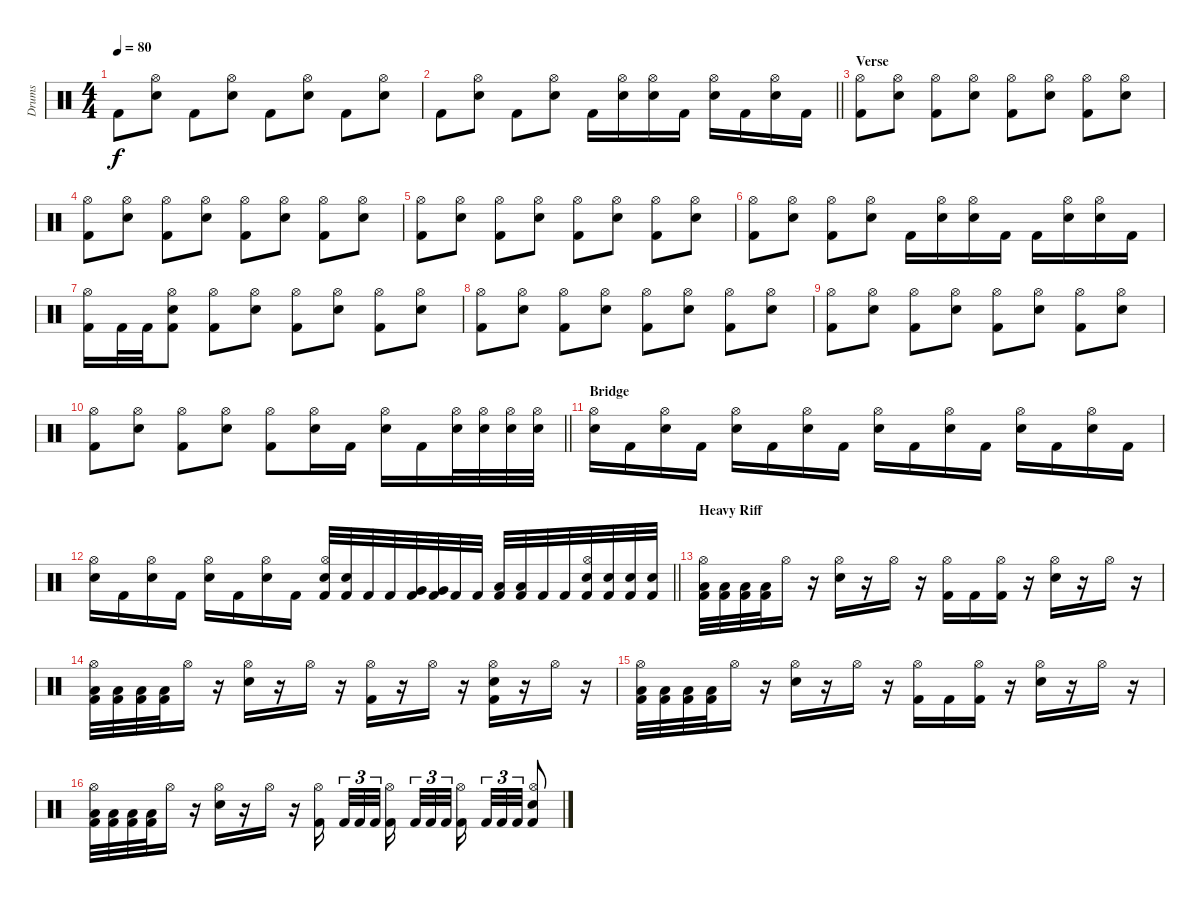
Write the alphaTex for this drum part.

\track ("Drums" "Drums") {instrument percussion}
\staff {score}
\articulation defaults
\ts (4 4)
\tempo 80
\clef neutral
\ks c "Kick (hit) 2".8{dy f}
("Hi-Hat (open)" "Electric Snare (hit)").8 "Kick (hit) 2".8 ("Hi-Hat (open)" "Electric Snare (hit)").8 "Kick (hit) 2".8 ("Hi-Hat (open)" "Electric Snare (hit)").8 "Kick (hit) 2".8 ("Hi-Hat (open)" "Electric Snare (hit)").8 |
\barLineRight lightlight "Kick (hit) 2".8
("Hi-Hat (open)" "Electric Snare (hit)").8 "Kick (hit) 2".8 ("Hi-Hat (open)" "Electric Snare (hit)").8 "Kick (hit) 2".16 ("Hi-Hat (open)" "Electric Snare (hit)").16 ("Hi-Hat (open)" "Electric Snare (hit)").16 "Kick (hit) 2".16 ("Hi-Hat (open)" "Electric Snare (hit)").16 "Kick (hit) 2".16 ("Hi-Hat (open)" "Electric Snare (hit)").16 "Kick (hit) 2".16 |
\section ("" "Verse")
("Hi-Hat (open)" "Kick (hit) 2").8 ("Hi-Hat (open)" "Electric Snare (hit)").8 ("Hi-Hat (open)" "Kick (hit) 2").8 ("Hi-Hat (open)" "Electric Snare (hit)").8 ("Hi-Hat (open)" "Kick (hit) 2").8 ("Hi-Hat (open)" "Electric Snare (hit)").8 ("Hi-Hat (open)" "Kick (hit) 2").8 ("Hi-Hat (open)" "Electric Snare (hit)").8 |
("Hi-Hat (open)" "Kick (hit) 2").8 ("Hi-Hat (open)" "Electric Snare (hit)").8 ("Hi-Hat (open)" "Kick (hit) 2").8 ("Hi-Hat (open)" "Electric Snare (hit)").8 ("Hi-Hat (open)" "Kick (hit) 2").8 ("Hi-Hat (open)" "Electric Snare (hit)").8 ("Hi-Hat (open)" "Kick (hit) 2").8 ("Hi-Hat (open)" "Electric Snare (hit)").8 |
("Hi-Hat (open)" "Kick (hit) 2").8 ("Hi-Hat (open)" "Electric Snare (hit)").8 ("Hi-Hat (open)" "Kick (hit) 2").8 ("Hi-Hat (open)" "Electric Snare (hit)").8 ("Hi-Hat (open)" "Kick (hit) 2").8 ("Hi-Hat (open)" "Electric Snare (hit)").8 ("Hi-Hat (open)" "Kick (hit) 2").8 ("Hi-Hat (open)" "Electric Snare (hit)").8 |
("Hi-Hat (open)" "Kick (hit) 2").8 ("Hi-Hat (open)" "Electric Snare (hit)").8 ("Hi-Hat (open)" "Kick (hit) 2").8 ("Hi-Hat (open)" "Electric Snare (hit)").8 "Kick (hit) 2".16 ("Hi-Hat (open)" "Electric Snare (hit)").16 ("Hi-Hat (open)" "Electric Snare (hit)").16 "Kick (hit) 2".16 "Kick (hit) 2".16 ("Hi-Hat (open)" "Electric Snare (hit)").16 ("Hi-Hat (open)" "Electric Snare (hit)").16 "Kick (hit) 2".16 |
("Hi-Hat (open)" "Kick (hit) 2").16 "Kick (hit) 2".32 "Kick (hit) 2".32 ("Hi-Hat (open)" "Electric Snare (hit)" "Kick (hit) 2").8 ("Hi-Hat (open)" "Kick (hit) 2").8 ("Hi-Hat (open)" "Electric Snare (hit)").8 ("Hi-Hat (open)" "Kick (hit) 2").8 ("Hi-Hat (open)" "Electric Snare (hit)").8 ("Hi-Hat (open)" "Kick (hit) 2").8 ("Hi-Hat (open)" "Electric Snare (hit)").8 |
("Hi-Hat (open)" "Kick (hit) 2").8 ("Hi-Hat (open)" "Electric Snare (hit)").8 ("Hi-Hat (open)" "Kick (hit) 2").8 ("Hi-Hat (open)" "Electric Snare (hit)").8 ("Hi-Hat (open)" "Kick (hit) 2").8 ("Hi-Hat (open)" "Electric Snare (hit)").8 ("Hi-Hat (open)" "Kick (hit) 2").8 ("Hi-Hat (open)" "Electric Snare (hit)").8 |
("Hi-Hat (open)" "Kick (hit) 2").8 ("Hi-Hat (open)" "Electric Snare (hit)").8 ("Hi-Hat (open)" "Kick (hit) 2").8 ("Hi-Hat (open)" "Electric Snare (hit)").8 ("Hi-Hat (open)" "Kick (hit) 2").8 ("Hi-Hat (open)" "Electric Snare (hit)").8 ("Hi-Hat (open)" "Kick (hit) 2").8 ("Hi-Hat (open)" "Electric Snare (hit)").8 |
\barLineRight lightlight
("Hi-Hat (open)" "Kick (hit) 2").8 ("Hi-Hat (open)" "Electric Snare (hit)").8 ("Hi-Hat (open)" "Kick (hit) 2").8 ("Hi-Hat (open)" "Electric Snare (hit)").8 ("Hi-Hat (open)" "Kick (hit) 2").8 ("Hi-Hat (open)" "Electric Snare (hit)").16 "Kick (hit) 2".16 ("Hi-Hat (open)" "Electric Snare (hit)").16 "Kick (hit) 2".16 ("Hi-Hat (open)" "Electric Snare (hit)").32 ("Hi-Hat (open)" "Electric Snare (hit)").32 ("Hi-Hat (open)" "Electric Snare (hit)").32 ("Hi-Hat (open)" "Electric Snare (hit)").32 |
\section ("" "Bridge")
("Hi-Hat (open)" "Electric Snare (hit)").16 "Kick (hit) 2".16 ("Hi-Hat (open)" "Electric Snare (hit)").16 "Kick (hit) 2".16 ("Hi-Hat (open)" "Electric Snare (hit)").16 "Kick (hit) 2".16 ("Hi-Hat (open)" "Electric Snare (hit)").16 "Kick (hit) 2".16 ("Hi-Hat (open)" "Electric Snare (hit)").16 "Kick (hit) 2".16 ("Hi-Hat (open)" "Electric Snare (hit)").16 "Kick (hit) 2".16 ("Hi-Hat (open)" "Electric Snare (hit)").16 "Kick (hit) 2".16 ("Hi-Hat (open)" "Electric Snare (hit)").16 "Kick (hit) 2".16 |
\barLineRight lightlight
("Hi-Hat (open)" "Electric Snare (hit)").16 "Kick (hit) 2".16 ("Hi-Hat (open)" "Electric Snare (hit)").16 "Kick (hit) 2".16 ("Hi-Hat (open)" "Electric Snare (hit)").16 "Kick (hit) 2".16 ("Hi-Hat (open)" "Electric Snare (hit)").16 "Kick (hit) 2".16 ("Hi-Hat (open)" "Electric Snare (hit)" "Kick (hit) 2").32 ("Electric Snare (hit)" "Kick (hit) 2").32 "Kick (hit) 2".32 "Kick (hit) 2".32 ("Very Low Tom (hit)" "Kick (hit) 2").32 ("Very Low Tom (hit)" "Kick (hit) 2").32 "Kick (hit) 2".32 "Kick (hit) 2".32 ("Low Floor Tom (hit)" "Kick (hit) 2").32 ("Low Floor Tom (hit)" "Kick (hit) 2").32 "Kick (hit) 2".32 "Kick (hit) 2".32 ("Hi-Hat (open)" "Electric Snare (hit)" "Kick (hit) 2").32 ("Electric Snare (hit)" "Kick (hit) 2").32 ("Electric Snare (hit)" "Kick (hit) 2").32 ("Electric Snare (hit)" "Kick (hit) 2").32 |
\section ("" "Heavy Riff")
("Hi-Hat (open)" "Low Floor Tom (hit)" "Kick (hit) 2").32 ("Low Floor Tom (hit)" "Kick (hit) 2").32 ("Low Floor Tom (hit)" "Kick (hit) 2").32 ("Low Floor Tom (hit)" "Kick (hit) 2").32 "Hi-Hat (open)".16 r.16 ("Hi-Hat (open)" "Electric Snare (hit)").16 r.16 "Hi-Hat (open)".16 r.16 ("Hi-Hat (open)" "Kick (hit) 2").16 "Kick (hit) 2".16 ("Hi-Hat (open)" "Kick (hit) 2").16 r.16 ("Hi-Hat (open)" "Electric Snare (hit)").16 r.16 "Hi-Hat (open)".16 r.16 |
("Hi-Hat (open)" "Low Floor Tom (hit)" "Kick (hit) 2").32 ("Low Floor Tom (hit)" "Kick (hit) 2").32 ("Low Floor Tom (hit)" "Kick (hit) 2").32 ("Low Floor Tom (hit)" "Kick (hit) 2").32 "Hi-Hat (open)".16 r.16 ("Hi-Hat (open)" "Electric Snare (hit)").16 r.16 "Hi-Hat (open)".16 r.16 ("Hi-Hat (open)" "Kick (hit) 2").16 r.16 "Hi-Hat (open)".16 r.16 ("Hi-Hat (open)" "Electric Snare (hit)" "Kick (hit) 2").16 r.16 "Hi-Hat (open)".16 r.16 |
("Hi-Hat (open)" "Low Floor Tom (hit)" "Kick (hit) 2").32 ("Low Floor Tom (hit)" "Kick (hit) 2").32 ("Low Floor Tom (hit)" "Kick (hit) 2").32 ("Low Floor Tom (hit)" "Kick (hit) 2").32 "Hi-Hat (open)".16 r.16 ("Hi-Hat (open)" "Electric Snare (hit)").16 r.16 "Hi-Hat (open)".16 r.16 ("Hi-Hat (open)" "Kick (hit) 2").16 "Kick (hit) 2".16 ("Hi-Hat (open)" "Kick (hit) 2").16 r.16 ("Hi-Hat (open)" "Electric Snare (hit)").16 r.16 "Hi-Hat (open)".16 r.16 |
("Hi-Hat (open)" "Low Floor Tom (hit)" "Kick (hit) 2").32 ("Low Floor Tom (hit)" "Kick (hit) 2").32 ("Low Floor Tom (hit)" "Kick (hit) 2").32 ("Low Floor Tom (hit)" "Kick (hit) 2").32 "Hi-Hat (open)".16 r.16 ("Hi-Hat (open)" "Electric Snare (hit)").16 r.16 "Hi-Hat (open)".16 r.16 ("Hi-Hat (open)" "Kick (hit) 2").16{beam splitsecondary} "Kick (hit) 2".32{tu (3 2)} "Kick (hit) 2".32{tu (3 2)} "Kick (hit) 2".32{tu (3 2) beam splitsecondary} ("Hi-Hat (open)" "Kick (hit) 2").16{beam splitsecondary} "Kick (hit) 2".32{tu (3 2)} "Kick (hit) 2".32{tu (3 2)} "Kick (hit) 2".32{tu (3 2)} ("Hi-Hat (open)" "Kick (hit) 2").16{beam splitsecondary} "Kick (hit) 2".32{tu (3 2)} "Kick (hit) 2".32{tu (3 2)} "Kick (hit) 2".32{tu (3 2)} ("Hi-Hat (open)" "Electric Snare (hit)" "Kick (hit) 2").8
